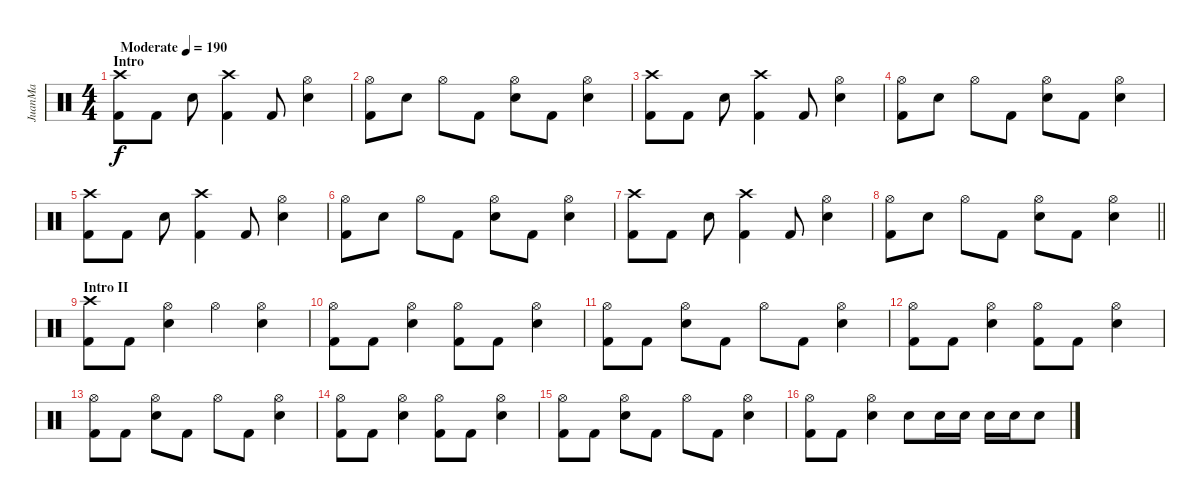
\track ("JuanMa" "JuanMa") {instrument percussion}
\staff {score}
\articulation defaults
\ts (4 4)
\section ("" "Intro")
\tempo (190 "Moderate")
\clef neutral
\ks c
("Crash high (hit)" "Kick (hit) 2").8{dy f} "Kick (hit) 2".8 "Electric Snare (hit)".8 ("Crash high (hit)" "Kick (hit) 2").4 "Kick (hit) 2".8 ("Hi-Hat (open)" "Electric Snare (hit)").4 |
("Hi-Hat (open)" "Kick (hit) 2").8 "Electric Snare (hit)".8 "Hi-Hat (open)".8 "Kick (hit) 2".8 ("Hi-Hat (open)" "Electric Snare (hit)").8 "Kick (hit) 2".8 ("Hi-Hat (open)" "Electric Snare (hit)").4 |
("Crash high (hit)" "Kick (hit) 2").8 "Kick (hit) 2".8 "Electric Snare (hit)".8 ("Crash high (hit)" "Kick (hit) 2").4 "Kick (hit) 2".8 ("Hi-Hat (open)" "Electric Snare (hit)").4 |
("Hi-Hat (open)" "Kick (hit) 2").8 "Electric Snare (hit)".8 "Hi-Hat (open)".8 "Kick (hit) 2".8 ("Hi-Hat (open)" "Electric Snare (hit)").8 "Kick (hit) 2".8 ("Hi-Hat (open)" "Electric Snare (hit)").4 |
("Crash high (hit)" "Kick (hit) 2").8 "Kick (hit) 2".8 "Electric Snare (hit)".8 ("Crash high (hit)" "Kick (hit) 2").4 "Kick (hit) 2".8 ("Hi-Hat (open)" "Electric Snare (hit)").4 |
("Hi-Hat (open)" "Kick (hit) 2").8 "Electric Snare (hit)".8 "Hi-Hat (open)".8 "Kick (hit) 2".8 ("Hi-Hat (open)" "Electric Snare (hit)").8 "Kick (hit) 2".8 ("Hi-Hat (open)" "Electric Snare (hit)").4 |
("Crash high (hit)" "Kick (hit) 2").8 "Kick (hit) 2".8 "Electric Snare (hit)".8 ("Crash high (hit)" "Kick (hit) 2").4 "Kick (hit) 2".8 ("Hi-Hat (open)" "Electric Snare (hit)").4 |
\barLineRight lightlight
("Hi-Hat (open)" "Kick (hit) 2").8 "Electric Snare (hit)".8 "Hi-Hat (open)".8 "Kick (hit) 2".8 ("Hi-Hat (open)" "Electric Snare (hit)").8 "Kick (hit) 2".8 ("Hi-Hat (open)" "Electric Snare (hit)").4 |
\section ("" "Intro II")
("Crash high (hit)" "Kick (hit) 2").8 "Kick (hit) 2".8 ("Hi-Hat (open)" "Electric Snare (hit)").4 "Hi-Hat (open)".4 ("Hi-Hat (open)" "Electric Snare (hit)").4 |
("Hi-Hat (open)" "Kick (hit) 2").8 "Kick (hit) 2".8 ("Hi-Hat (open)" "Electric Snare (hit)").4 ("Hi-Hat (open)" "Kick (hit) 2").8 "Kick (hit) 2".8 ("Hi-Hat (open)" "Electric Snare (hit)").4 |
("Hi-Hat (open)" "Kick (hit) 2").8 "Kick (hit) 2".8 ("Hi-Hat (open)" "Electric Snare (hit)").8 "Kick (hit) 2".8 "Hi-Hat (open)".8 "Kick (hit) 2".8 ("Hi-Hat (open)" "Electric Snare (hit)").4 |
("Hi-Hat (open)" "Kick (hit) 2").8 "Kick (hit) 2".8 ("Hi-Hat (open)" "Electric Snare (hit)").4 ("Hi-Hat (open)" "Kick (hit) 2").8 "Kick (hit) 2".8 ("Hi-Hat (open)" "Electric Snare (hit)").4 |
("Hi-Hat (open)" "Kick (hit) 2").8 "Kick (hit) 2".8 ("Hi-Hat (open)" "Electric Snare (hit)").8 "Kick (hit) 2".8 "Hi-Hat (open)".8 "Kick (hit) 2".8 ("Hi-Hat (open)" "Electric Snare (hit)").4 |
("Hi-Hat (open)" "Kick (hit) 2").8 "Kick (hit) 2".8 ("Hi-Hat (open)" "Electric Snare (hit)").4 ("Hi-Hat (open)" "Kick (hit) 2").8 "Kick (hit) 2".8 ("Hi-Hat (open)" "Electric Snare (hit)").4 |
("Hi-Hat (open)" "Kick (hit) 2").8 "Kick (hit) 2".8 ("Hi-Hat (open)" "Electric Snare (hit)").8 "Kick (hit) 2".8 "Hi-Hat (open)".8 "Kick (hit) 2".8 ("Hi-Hat (open)" "Electric Snare (hit)").4 |
("Hi-Hat (open)" "Kick (hit) 2").8 "Kick (hit) 2".8 ("Hi-Hat (open)" "Electric Snare (hit)").4 "Electric Snare (hit)".8 "Electric Snare (hit)".16 "Electric Snare (hit)".16 "Electric Snare (hit)".16 "Electric Snare (hit)".16 "Electric Snare (hit)".8
